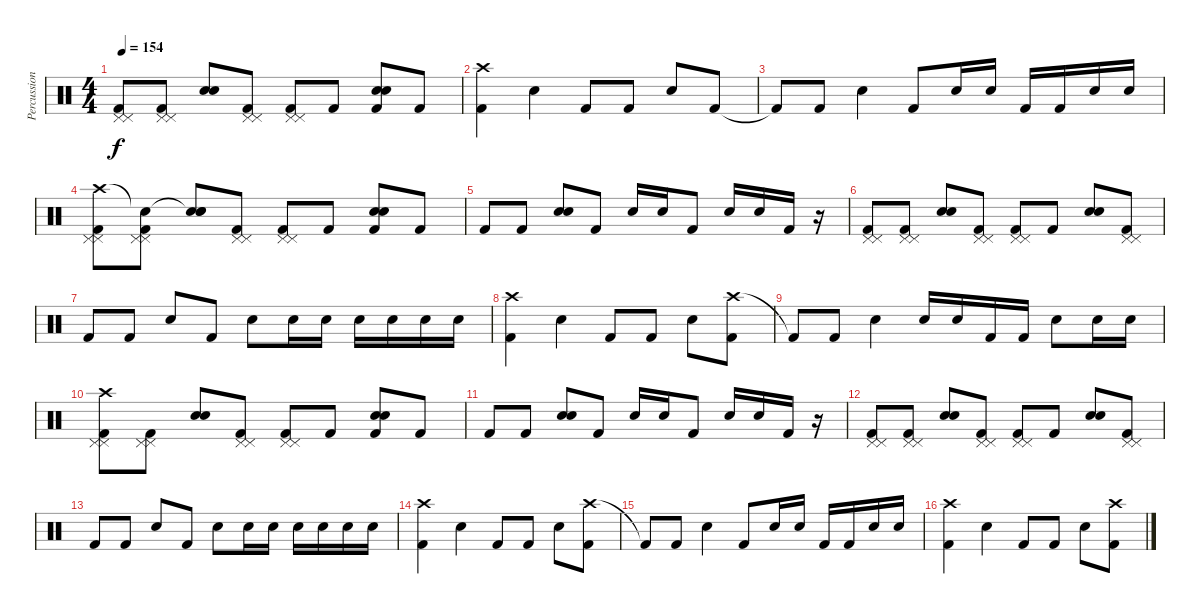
\track ("Percussion" "Percussion") {instrument percussion}
\staff {score}
\articulation defaults
\ts (4 4)
\tempo 154
\clef neutral
\ks c
("Pedal Hi-Hat (hit)" "Pedal Hi-Hat (hit)" "Kick (hit) 2").8{dy f} ("Pedal Hi-Hat (hit)" "Pedal Hi-Hat (hit)" "Kick (hit) 2").8 ("Electric Snare (hit)" "Electric Snare (hit)").8 ("Pedal Hi-Hat (hit)" "Pedal Hi-Hat (hit)" "Kick (hit) 2").8 ("Pedal Hi-Hat (hit)" "Pedal Hi-Hat (hit)" "Kick (hit) 2").8 "Kick (hit) 2".8 ("Electric Snare (hit)" "Electric Snare (hit)" "Kick (hit) 2").8 "Kick (hit) 2".8 |
("Crash high (hit)" "Kick (hit) 2").4 "Electric Snare (hit)".4 "Kick (hit) 2".8 "Kick (hit) 2".8 "Electric Snare (hit)".8 "Kick (hit) 2".8 |
"Kick (hit) 2"{t}.8 "Kick (hit) 2".8 "Electric Snare (hit)".4 "Kick (hit) 2".8 "Electric Snare (hit)".16 "Electric Snare (hit)".16 "Kick (hit) 2".16 "Kick (hit) 2".16 "Electric Snare (hit)".16 "Electric Snare (hit)".16 |
("Pedal Hi-Hat (hit)" "Pedal Hi-Hat (hit)" "Crash high (hit)" "Kick (hit) 2").8 ("Pedal Hi-Hat (hit)" "Pedal Hi-Hat (hit)" "Snare (hit)"{t} "Kick (hit) 2").8 ("Electric Snare (hit)" "Electric Snare (hit)" "Snare (hit)"{t}).8 ("Pedal Hi-Hat (hit)" "Pedal Hi-Hat (hit)" "Kick (hit) 2").8 ("Pedal Hi-Hat (hit)" "Pedal Hi-Hat (hit)" "Kick (hit) 2").8 "Kick (hit) 2".8 ("Electric Snare (hit)" "Electric Snare (hit)" "Kick (hit) 2").8 "Kick (hit) 2".8 |
"Kick (hit) 2".8 "Kick (hit) 2".8 ("Electric Snare (hit)" "Electric Snare (hit)").8 "Kick (hit) 2".8 "Electric Snare (hit)".16 "Electric Snare (hit)".16 "Kick (hit) 2".8 "Electric Snare (hit)".16 "Electric Snare (hit)".16 "Kick (hit) 2".16 r.16 |
("Pedal Hi-Hat (hit)" "Pedal Hi-Hat (hit)" "Kick (hit) 2").8 ("Pedal Hi-Hat (hit)" "Pedal Hi-Hat (hit)" "Kick (hit) 2").8 ("Electric Snare (hit)" "Electric Snare (hit)").8 ("Pedal Hi-Hat (hit)" "Pedal Hi-Hat (hit)" "Kick (hit) 2").8 ("Pedal Hi-Hat (hit)" "Pedal Hi-Hat (hit)" "Kick (hit) 2").8 "Kick (hit) 2".8 ("Electric Snare (hit)" "Electric Snare (hit)").8 ("Pedal Hi-Hat (hit)" "Pedal Hi-Hat (hit)" "Kick (hit) 2").8 |
"Kick (hit) 2".8 "Kick (hit) 2".8 "Electric Snare (hit)".8 "Kick (hit) 2".8 "Electric Snare (hit)".8 "Electric Snare (hit)".16 "Electric Snare (hit)".16 "Electric Snare (hit)".16 "Electric Snare (hit)".16 "Electric Snare (hit)".16 "Electric Snare (hit)".16 |
("Crash high (hit)" "Kick (hit) 2").4 "Electric Snare (hit)".4 "Kick (hit) 2".8 "Kick (hit) 2".8 "Electric Snare (hit)".8 ("Crash high (hit)" "Kick (hit) 2").8 |
"Kick (hit) 2"{t}.8 "Kick (hit) 2".8 "Electric Snare (hit)".4 "Electric Snare (hit)".16 "Electric Snare (hit)".16 "Kick (hit) 2".16 "Kick (hit) 2".16 "Electric Snare (hit)".8 "Electric Snare (hit)".16 "Electric Snare (hit)".16 |
("Pedal Hi-Hat (hit)" "Pedal Hi-Hat (hit)" "Crash high (hit)" "Kick (hit) 2").8 ("Pedal Hi-Hat (hit)" "Pedal Hi-Hat (hit)" "Kick (hit) 2").8 ("Electric Snare (hit)" "Electric Snare (hit)").8 ("Pedal Hi-Hat (hit)" "Pedal Hi-Hat (hit)" "Kick (hit) 2").8 ("Pedal Hi-Hat (hit)" "Pedal Hi-Hat (hit)" "Kick (hit) 2").8 "Kick (hit) 2".8 ("Electric Snare (hit)" "Electric Snare (hit)" "Kick (hit) 2").8 "Kick (hit) 2".8 |
"Kick (hit) 2".8 "Kick (hit) 2".8 ("Electric Snare (hit)" "Electric Snare (hit)").8 "Kick (hit) 2".8 "Electric Snare (hit)".16 "Electric Snare (hit)".16 "Kick (hit) 2".8 "Electric Snare (hit)".16 "Electric Snare (hit)".16 "Kick (hit) 2".16 r.16 |
("Pedal Hi-Hat (hit)" "Pedal Hi-Hat (hit)" "Kick (hit) 2").8 ("Pedal Hi-Hat (hit)" "Pedal Hi-Hat (hit)" "Kick (hit) 2").8 ("Electric Snare (hit)" "Electric Snare (hit)").8 ("Pedal Hi-Hat (hit)" "Pedal Hi-Hat (hit)" "Kick (hit) 2").8 ("Pedal Hi-Hat (hit)" "Pedal Hi-Hat (hit)" "Kick (hit) 2").8 "Kick (hit) 2".8 ("Electric Snare (hit)" "Electric Snare (hit)").8 ("Pedal Hi-Hat (hit)" "Pedal Hi-Hat (hit)" "Kick (hit) 2").8 |
"Kick (hit) 2".8 "Kick (hit) 2".8 "Electric Snare (hit)".8 "Kick (hit) 2".8 "Electric Snare (hit)".8 "Electric Snare (hit)".16 "Electric Snare (hit)".16 "Electric Snare (hit)".16 "Electric Snare (hit)".16 "Electric Snare (hit)".16 "Electric Snare (hit)".16 |
("Crash high (hit)" "Kick (hit) 2").4 "Electric Snare (hit)".4 "Kick (hit) 2".8 "Kick (hit) 2".8 "Electric Snare (hit)".8 ("Crash high (hit)" "Kick (hit) 2").8 |
"Kick (hit) 2"{t}.8 "Kick (hit) 2".8 "Electric Snare (hit)".4 "Kick (hit) 2".8 "Electric Snare (hit)".16 "Electric Snare (hit)".16 "Kick (hit) 2".16 "Kick (hit) 2".16 "Electric Snare (hit)".16 "Electric Snare (hit)".16 |
("Crash high (hit)" "Kick (hit) 2").4 "Electric Snare (hit)".4 "Kick (hit) 2".8 "Kick (hit) 2".8 "Electric Snare (hit)".8 ("Crash high (hit)" "Kick (hit) 2").8
